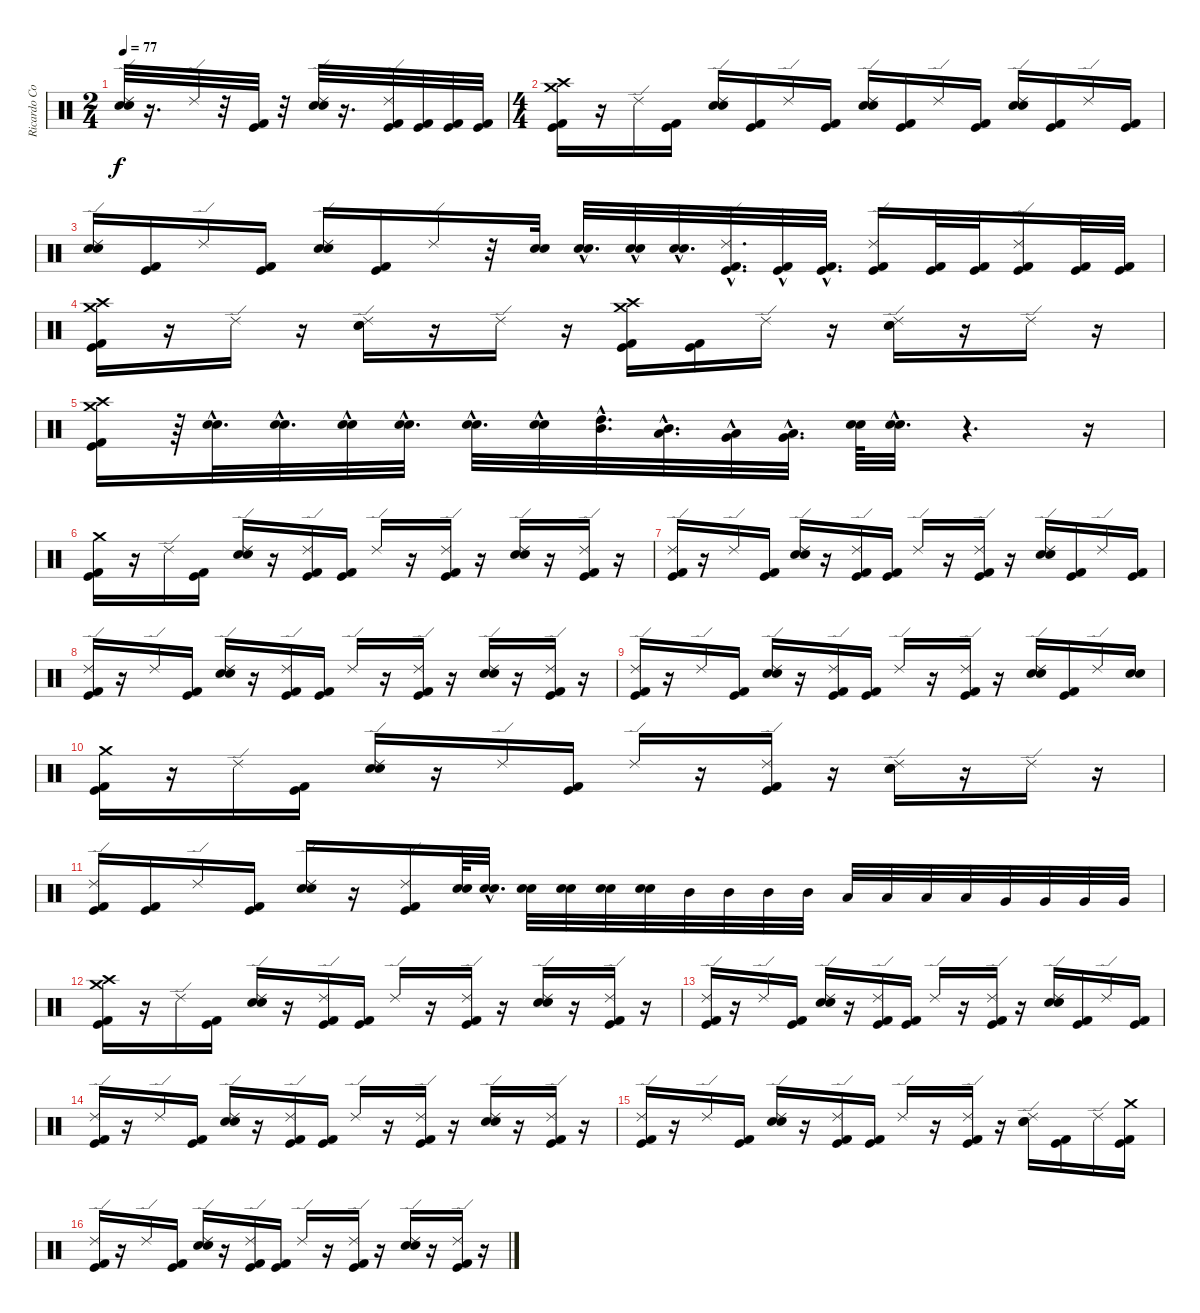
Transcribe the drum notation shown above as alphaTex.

\track ("Ricardo Confessori" "Ricardo Co") {instrument percussion}
\staff {score}
\articulation defaults
\ts (2 4)
\tempo 77
\clef neutral
\ks c
("Ride (edge) 2" "Electric Snare (hit)" "Snare (hit) 2").32{dy f} r.16{d} "Ride (edge) 2".32 r.32 ("Kick (hit)" "Kick (hit) 2").32 r.32 ("Electric Snare (hit)" "Snare (hit) 2" "Ride (edge) 2").32 r.16{d} ("Kick (hit) 2" "Kick (hit)" "Ride (edge) 2").32 ("Kick (hit) 2" "Kick (hit)").32 ("Kick (hit) 2" "Kick (hit)").32 ("Kick (hit) 2" "Kick (hit)").32 |
\ts (4 4)
("Crash high (hit)" "Crash medium (hit)" "Kick (hit) 2" "Kick (hit)").16 r.16 "Ride (edge) 2".16 ("Kick (hit) 2" "Kick (hit)").16 ("Ride (edge) 2" "Electric Snare (hit)" "Snare (hit) 2").16 ("Kick (hit) 2" "Kick (hit)").16 "Ride (edge) 2".16 ("Kick (hit) 2" "Kick (hit)").16 ("Ride (edge) 2" "Electric Snare (hit)" "Snare (hit) 2").16 ("Kick (hit) 2" "Kick (hit)").16 "Ride (edge) 2".16 ("Kick (hit) 2" "Kick (hit)").16 ("Ride (edge) 2" "Snare (hit) 2" "Electric Snare (hit)").16 ("Kick (hit) 2" "Kick (hit)").16 "Ride (edge) 2".16 ("Kick (hit) 2" "Kick (hit)").16 |
("Ride (edge) 2" "Electric Snare (hit)" "Snare (hit) 2").16 ("Kick (hit) 2" "Kick (hit)").16 "Ride (edge) 2".16 ("Kick (hit) 2" "Kick (hit)").16 ("Ride (edge) 2" "Electric Snare (hit)" "Snare (hit) 2").16 ("Kick (hit) 2" "Kick (hit)").16 "Ride (edge) 2".16 r.32 ("Electric Snare (hit)" "Snare (hit) 2").32 ("Electric Snare (hit)"{hac} "Snare (hit) 2"{hac}).32{d} ("Electric Snare (hit)"{hac} "Snare (hit) 2"{hac}).32 ("Electric Snare (hit)"{hac} "Snare (hit) 2"{hac}).32{d} ("Kick (hit) 2"{hac} "Kick (hit)"{hac} "Ride (edge) 2").32{d} ("Kick (hit) 2"{hac} "Kick (hit)"{hac}).32 ("Kick (hit) 2"{hac} "Kick (hit)"{hac}).32{d} ("Kick (hit) 2" "Kick (hit)" "Ride (edge) 2").16 ("Kick (hit) 2" "Kick (hit)").32 ("Kick (hit) 2" "Kick (hit)").32 ("Kick (hit) 2" "Kick (hit)" "Ride (edge) 2").16 ("Kick (hit) 2" "Kick (hit)").32 ("Kick (hit) 2" "Kick (hit)").32 |
("Crash high (hit)" "Crash medium (hit)" "Kick (hit) 2" "Kick (hit)").16 r.16 "Ride (edge) 2".16 r.16 ("Electric Snare (hit)" "Snare (hit) 2" "Ride (edge) 2").16 r.16 "Ride (edge) 2".16 r.16 ("Crash high (hit)" "Crash medium (hit)" "Kick (hit) 2" "Kick (hit)").16 ("Kick (hit)" "Kick (hit) 2").16 "Ride (edge) 2".16 r.16 ("Electric Snare (hit)" "Snare (hit) 2" "Ride (edge) 2").16 r.16 "Ride (edge) 2".16 r.16 |
("Crash high (hit)" "Crash medium (hit)" "Kick (hit) 2" "Kick (hit)").16 r.64 ("Electric Snare (hit)"{hac} "Snare (hit) 2"{hac}).32{d} ("Electric Snare (hit)"{hac} "Snare (hit) 2"{hac}).32{d} ("Electric Snare (hit)"{hac} "Snare (hit) 2"{hac}).32 ("Electric Snare (hit)"{hac} "Snare (hit) 2"{hac}).32{d} ("Electric Snare (hit)"{hac} "Snare (hit) 2"{hac}).32{d} ("Electric Snare (hit)"{hac} "Snare (hit) 2"{hac}).32 ("High Tom (hit)"{hac} "Mid Tom (hit)"{hac}).32{d} ("Mid Tom (hit)"{hac} "Low Tom (hit)"{hac}).32{d} ("Low Tom (hit)"{hac} "Very Low Tom (hit)"{hac}).32 ("Very Low Tom (hit)"{hac} "Low Floor Tom (hit)"{hac}).32{d} ("Electric Snare (hit)" "Snare (hit) 2").64 ("Electric Snare (hit)"{hac} "Snare (hit) 2"{hac}).32{d} r.4{d} r.16 |
("Kick (hit) 2" "Crash medium (hit)" "Kick (hit)").16 r.16 "Ride (edge) 2".16 ("Kick (hit) 2" "Kick (hit)").16 ("Electric Snare (hit)" "Snare (hit) 2" "Ride (edge) 2").16 r.16 ("Kick (hit) 2" "Kick (hit)" "Ride (edge) 2").16 ("Kick (hit) 2" "Kick (hit)").16 "Ride (edge) 2".16 r.16 ("Kick (hit) 2" "Kick (hit)" "Ride (edge) 2").16 r.16 ("Electric Snare (hit)" "Snare (hit) 2" "Ride (edge) 2").16 r.16 ("Kick (hit) 2" "Kick (hit)" "Ride (edge) 2").16 r.16 |
("Ride (edge) 2" "Kick (hit) 2" "Kick (hit)").16 r.16 "Ride (edge) 2".16 ("Kick (hit) 2" "Kick (hit)").16 ("Electric Snare (hit)" "Snare (hit) 2" "Ride (edge) 2").16 r.16 ("Ride (edge) 2" "Kick (hit) 2" "Kick (hit)").16 ("Kick (hit) 2" "Kick (hit)").16 "Ride (edge) 2".16 r.16 ("Ride (edge) 2" "Kick (hit) 2" "Kick (hit)").16 r.16 ("Electric Snare (hit)" "Snare (hit) 2" "Ride (edge) 2").16 ("Kick (hit)" "Kick (hit) 2").16 "Ride (edge) 2".16 ("Kick (hit) 2" "Kick (hit)").16 |
("Ride (edge) 2" "Kick (hit) 2" "Kick (hit)").16 r.16 "Ride (edge) 2".16 ("Kick (hit) 2" "Kick (hit)").16 ("Electric Snare (hit)" "Snare (hit) 2" "Ride (edge) 2").16 r.16 ("Ride (edge) 2" "Kick (hit) 2" "Kick (hit)").16 ("Kick (hit) 2" "Kick (hit)").16 "Ride (edge) 2".16 r.16 ("Ride (edge) 2" "Kick (hit) 2" "Kick (hit)").16 r.16 ("Electric Snare (hit)" "Snare (hit) 2" "Ride (edge) 2").16 r.16 ("Ride (edge) 2" "Kick (hit) 2" "Kick (hit)").16 r.16 |
("Ride (edge) 2" "Kick (hit) 2" "Kick (hit)").16 r.16 "Ride (edge) 2".16 ("Kick (hit) 2" "Kick (hit)").16 ("Electric Snare (hit)" "Snare (hit) 2" "Ride (edge) 2").16 r.16 ("Ride (edge) 2" "Kick (hit) 2" "Kick (hit)").16 ("Kick (hit) 2" "Kick (hit)").16 "Ride (edge) 2".16 r.16 ("Kick (hit) 2" "Ride (edge) 2" "Kick (hit)").16 r.16 ("Electric Snare (hit)" "Snare (hit) 2" "Ride (edge) 2").16 ("Kick (hit) 2" "Kick (hit)").16 "Ride (edge) 2".16 ("Electric Snare (hit)" "Snare (hit) 2").16 |
("Crash medium (hit)" "Kick (hit) 2" "Kick (hit)").16 r.16 "Ride (edge) 2".16 ("Kick (hit) 2" "Kick (hit)").16 ("Electric Snare (hit)" "Snare (hit) 2" "Ride (edge) 2").16 r.16 "Ride (edge) 2".16 ("Kick (hit) 2" "Kick (hit)").16 "Ride (edge) 2".16 r.16 ("Ride (edge) 2" "Kick (hit) 2" "Kick (hit)").16 r.16 ("Electric Snare (hit)" "Snare (hit) 2" "Ride (edge) 2").16 r.16 "Ride (edge) 2".16 r.16 |
("Ride (edge) 2" "Kick (hit) 2" "Kick (hit)").16 ("Kick (hit) 2" "Kick (hit)").16 "Ride (edge) 2".16 ("Kick (hit) 2" "Kick (hit)").16 ("Ride (edge) 2" "Snare (hit) 2" "Electric Snare (hit)").16 r.16 ("Kick (hit) 2" "Kick (hit)" "Ride (edge) 2").16 ("Electric Snare (hit)" "Snare (hit) 2").64 ("Electric Snare (hit)"{hac} "Snare (hit) 2"{hac}).32{d} ("Electric Snare (hit)" "Snare (hit) 2").32 ("Electric Snare (hit)" "Snare (hit) 2").32 ("Electric Snare (hit)" "Snare (hit) 2").32 ("Electric Snare (hit)" "Snare (hit) 2").32 "Mid Tom (hit)".32 "Mid Tom (hit)".32 "Mid Tom (hit)".32 "Mid Tom (hit)".32 "Low Tom (hit)".32 "Low Tom (hit)".32 "Low Tom (hit)".32 "Low Tom (hit)".32 "Very Low Tom (hit)".32 "Very Low Tom (hit)".32 "Very Low Tom (hit)".32 "Very Low Tom (hit)".32 |
("Crash high (hit)" "Crash medium (hit)" "Kick (hit) 2" "Kick (hit)").16 r.16 "Ride (edge) 2".16 ("Kick (hit) 2" "Kick (hit)").16 ("Ride (edge) 2" "Electric Snare (hit)" "Snare (hit) 2").16 r.16 ("Ride (edge) 2" "Kick (hit) 2" "Kick (hit)").16 ("Kick (hit) 2" "Kick (hit)").16 "Ride (edge) 2".16 r.16 ("Kick (hit) 2" "Kick (hit)" "Ride (edge) 2").16 r.16 ("Electric Snare (hit)" "Snare (hit) 2" "Ride (edge) 2").16 r.16 ("Kick (hit) 2" "Kick (hit)" "Ride (edge) 2").16 r.16 |
("Ride (edge) 2" "Kick (hit) 2" "Kick (hit)").16 r.16 "Ride (edge) 2".16 ("Kick (hit) 2" "Kick (hit)").16 ("Ride (edge) 2" "Electric Snare (hit)" "Snare (hit) 2").16 r.16 ("Ride (edge) 2" "Kick (hit) 2" "Kick (hit)").16 ("Kick (hit) 2" "Kick (hit)").16 "Ride (edge) 2".16 r.16 ("Kick (hit) 2" "Kick (hit)" "Ride (edge) 2").16 r.16 ("Electric Snare (hit)" "Snare (hit) 2" "Ride (edge) 2").16 ("Kick (hit) 2" "Kick (hit)").16 "Ride (edge) 2".16 ("Kick (hit) 2" "Kick (hit)").16 |
("Ride (edge) 2" "Kick (hit) 2" "Kick (hit)").16 r.16 "Ride (edge) 2".16 ("Kick (hit) 2" "Kick (hit)").16 ("Electric Snare (hit)" "Snare (hit) 2" "Ride (edge) 2").16 r.16 ("Kick (hit) 2" "Kick (hit)" "Ride (edge) 2").16 ("Kick (hit) 2" "Kick (hit)").16 "Ride (edge) 2".16 r.16 ("Kick (hit) 2" "Kick (hit)" "Ride (edge) 2").16 r.16 ("Electric Snare (hit)" "Snare (hit) 2" "Ride (edge) 2").16 r.16 ("Kick (hit) 2" "Kick (hit)" "Ride (edge) 2").16 r.16 |
("Ride (edge) 2" "Kick (hit) 2" "Kick (hit)").16 r.16 "Ride (edge) 2".16 ("Kick (hit) 2" "Kick (hit)").16 ("Electric Snare (hit)" "Snare (hit) 2" "Ride (edge) 2").16 r.16 ("Ride (edge) 2" "Kick (hit) 2" "Kick (hit)").16 ("Kick (hit) 2" "Kick (hit)").16 "Ride (edge) 2".16 r.16 ("Ride (edge) 2" "Kick (hit) 2" "Kick (hit)").16 r.16 ("Electric Snare (hit)" "Snare (hit) 2" "Ride (edge) 2").16 ("Kick (hit) 2" "Kick (hit)").16 "Ride (edge) 2".16 ("Crash medium (hit)" "Kick (hit) 2" "Kick (hit)").16 |
("Ride (edge) 2" "Kick (hit) 2" "Kick (hit)").16 r.16 "Ride (edge) 2".16 ("Kick (hit) 2" "Kick (hit)").16 ("Ride (edge) 2" "Electric Snare (hit)" "Snare (hit) 2").16 r.16 ("Ride (edge) 2" "Kick (hit) 2" "Kick (hit)").16 ("Kick (hit)" "Kick (hit) 2").16 "Ride (edge) 2".16 r.16 ("Ride (edge) 2" "Kick (hit) 2" "Kick (hit)").16 r.16 ("Electric Snare (hit)" "Snare (hit) 2" "Ride (edge) 2").16 r.16 ("Ride (edge) 2" "Kick (hit) 2" "Kick (hit)").16 r.16
